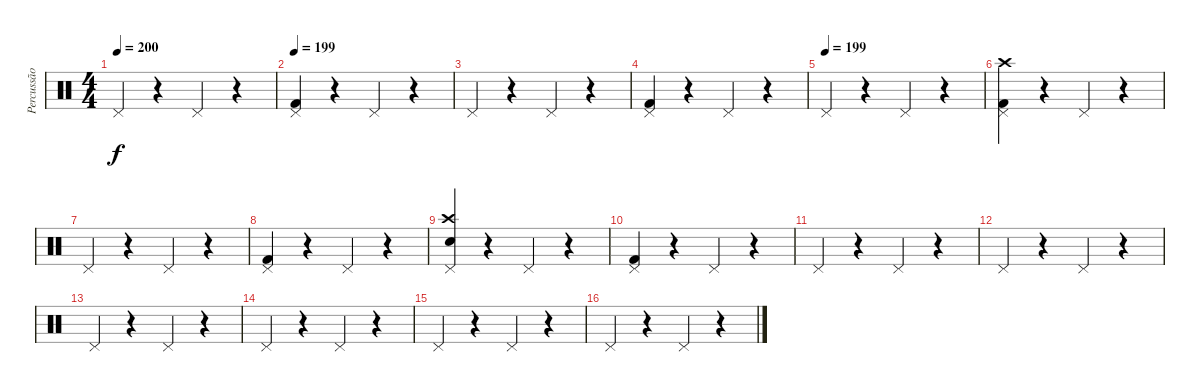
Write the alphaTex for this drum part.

\track ("Percussão" "Percussão") {instrument percussion}
\staff {score}
\articulation defaults
\ts (4 4)
\tempo 200
\clef neutral
\ks c "Pedal Hi-Hat (hit)".4{dy f}
r.4 "Pedal Hi-Hat (hit)".4 r.4 |
\tempo 199
("Pedal Hi-Hat (hit)" "Kick (hit) 2").4 r.4 "Pedal Hi-Hat (hit)".4 r.4 |
"Pedal Hi-Hat (hit)".4 r.4 "Pedal Hi-Hat (hit)".4 r.4 |
("Pedal Hi-Hat (hit)" "Kick (hit) 2").4 r.4 "Pedal Hi-Hat (hit)".4 r.4 |
\tempo (199)
"Pedal Hi-Hat (hit)".4 r.4 "Pedal Hi-Hat (hit)".4 r.4 |
("Pedal Hi-Hat (hit)" "Crash high (hit)" "Kick (hit) 2").4 r.4 "Pedal Hi-Hat (hit)".4 r.4 |
"Pedal Hi-Hat (hit)".4 r.4 "Pedal Hi-Hat (hit)".4 r.4 |
("Pedal Hi-Hat (hit)" "Kick (hit) 2").4 r.4 "Pedal Hi-Hat (hit)".4 r.4 |
("Pedal Hi-Hat (hit)" "Crash high (hit)" "Snare (hit)").4 r.4 "Pedal Hi-Hat (hit)".4 r.4 |
("Pedal Hi-Hat (hit)" "Kick (hit) 2").4 r.4 "Pedal Hi-Hat (hit)".4 r.4 |
"Pedal Hi-Hat (hit)".4 r.4 "Pedal Hi-Hat (hit)".4 r.4 |
"Pedal Hi-Hat (hit)".4 r.4 "Pedal Hi-Hat (hit)".4 r.4 |
"Pedal Hi-Hat (hit)".4 r.4 "Pedal Hi-Hat (hit)".4 r.4 |
"Pedal Hi-Hat (hit)".4 r.4 "Pedal Hi-Hat (hit)".4 r.4 |
"Pedal Hi-Hat (hit)".4 r.4 "Pedal Hi-Hat (hit)".4 r.4 |
"Pedal Hi-Hat (hit)".4 r.4 "Pedal Hi-Hat (hit)".4 r.4
